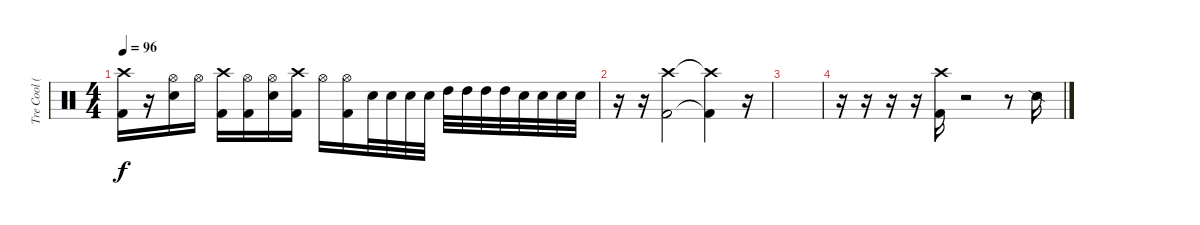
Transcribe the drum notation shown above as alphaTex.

\track ("Tre Cool (Drums)" "Tre Cool (") {instrument percussion}
\staff {score}
\articulation defaults
\ts (4 4)
\tempo 96
\clef neutral
\ks c
("Crash high (hit)" "Kick (hit) 2").16{dy f} r.16 ("Hi-Hat (open)" "Electric Snare (hit)").16 "Hi-Hat (open)".16 ("Crash high (hit)" "Kick (hit) 2").16 ("Hi-Hat (open)" "Kick (hit) 2").16 ("Hi-Hat (open)" "Electric Snare (hit)").16 ("Crash high (hit)" "Kick (hit) 2").16 "Hi-Hat (open)".16 ("Hi-Hat (open)" "Kick (hit) 2").16 "Electric Snare (hit)".32 "Electric Snare (hit)".32 "Electric Snare (hit)".32 "Electric Snare (hit)".32 "High Tom (hit)".32 "High Tom (hit)".32 "High Tom (hit)".32 "High Tom (hit)".32 "Electric Snare (hit)".32 "Electric Snare (hit)".32 "Electric Snare (hit)".32 "Electric Snare (hit)".32 |
r.16 r.16 ("Crash high (hit)" "Kick (hit) 2").2 ("Crash high (hit)"{t} "Kick (hit) 2"{t}).4 r.16 |
|
r.16 r.16 r.16 r.16 ("Crash high (hit)" "Kick (hit) 2").16 r.2 r.8 "Snare (side stick) 2".16{volume 4 balance 4}
